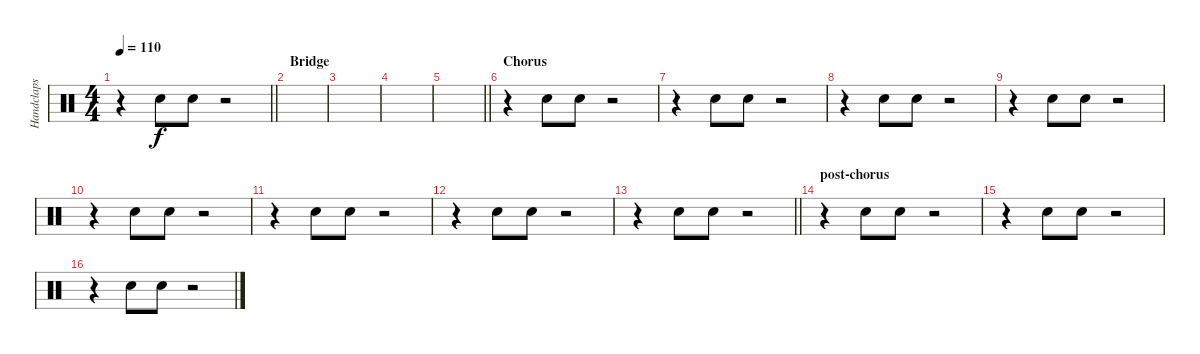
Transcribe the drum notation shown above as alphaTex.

\track ("Handclaps" "Handclaps") {instrument percussion}
\staff {score}
\articulation defaults
\ts (4 4)
\tempo 110
\clef neutral
\barLineRight lightlight
\ks c
r.4{dy f} "Hand Clap (hit)".8 "Hand Clap (hit)".8 r.2 |
\section ("" "Bridge")
|
|
|
\barLineRight lightlight
|
\section ("" "Chorus")
r.4 "Hand Clap (hit)".8 "Hand Clap (hit)".8 r.2 |
r.4 "Hand Clap (hit)".8 "Hand Clap (hit)".8 r.2 |
r.4 "Hand Clap (hit)".8 "Hand Clap (hit)".8 r.2 |
r.4 "Hand Clap (hit)".8 "Hand Clap (hit)".8 r.2 |
r.4 "Hand Clap (hit)".8 "Hand Clap (hit)".8 r.2 |
r.4 "Hand Clap (hit)".8 "Hand Clap (hit)".8 r.2 |
r.4 "Hand Clap (hit)".8 "Hand Clap (hit)".8 r.2 |
\barLineRight lightlight
r.4 "Hand Clap (hit)".8 "Hand Clap (hit)".8 r.2 |
\section ("" "post-chorus")
r.4 "Hand Clap (hit)".8 "Hand Clap (hit)".8 r.2 |
r.4 "Hand Clap (hit)".8 "Hand Clap (hit)".8 r.2 |
r.4 "Hand Clap (hit)".8 "Hand Clap (hit)".8 r.2
